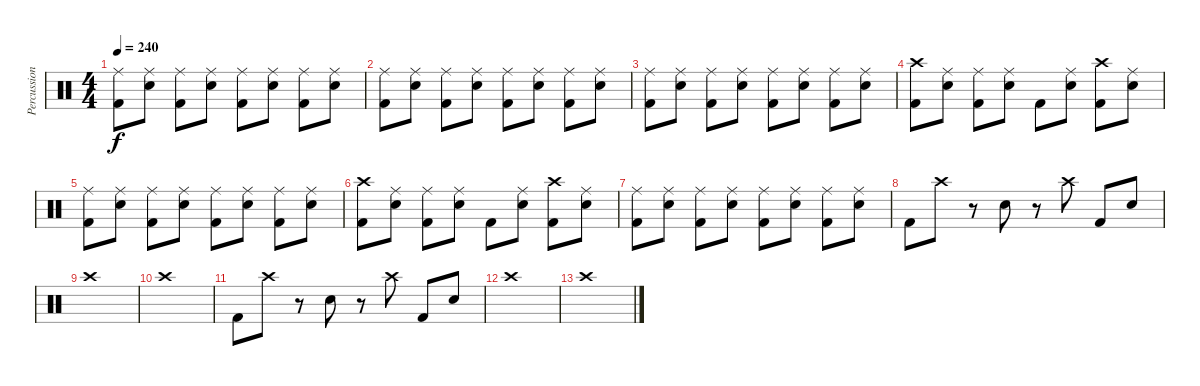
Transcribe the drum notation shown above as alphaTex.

\track ("Percussion" "Percussion") {instrument percussion}
\staff {score}
\articulation defaults
\ts (4 4)
\tempo 240
\clef neutral
\ks c
("Kick (hit) 2" "Ride (middle)").8{dy f} ("Snare (hit) 2" "Ride (middle)").8 ("Kick (hit) 2" "Ride (middle)").8 ("Snare (hit) 2" "Ride (middle)").8 ("Kick (hit) 2" "Ride (middle)").8 ("Snare (hit) 2" "Ride (middle)").8 ("Kick (hit) 2" "Ride (middle)").8 ("Snare (hit) 2" "Ride (middle)").8 |
("Kick (hit) 2" "Ride (middle)").8 ("Snare (hit) 2" "Ride (middle)").8 ("Kick (hit) 2" "Ride (middle)").8 ("Snare (hit) 2" "Ride (middle)").8 ("Kick (hit) 2" "Ride (middle)").8 ("Snare (hit) 2" "Ride (middle)").8 ("Kick (hit) 2" "Ride (middle)").8 ("Snare (hit) 2" "Ride (middle)").8 |
("Kick (hit) 2" "Ride (middle)").8 ("Snare (hit) 2" "Ride (middle)").8 ("Kick (hit) 2" "Ride (middle)").8 ("Snare (hit) 2" "Ride (middle)").8 ("Kick (hit) 2" "Ride (middle)").8 ("Snare (hit) 2" "Ride (middle)").8 ("Kick (hit) 2" "Ride (middle)").8 ("Snare (hit) 2" "Ride (middle)").8 |
("Kick (hit) 2" "Crash high (hit)").8 ("Snare (hit) 2" "Ride (middle)").8 ("Kick (hit) 2" "Ride (middle)").8 ("Snare (hit) 2" "Ride (middle)").8 "Kick (hit) 2".8 ("Snare (hit) 2" "Ride (middle)").8 ("Kick (hit) 2" "Crash high (hit)").8 ("Snare (hit) 2" "Ride (middle)").8 |
("Kick (hit) 2" "Ride (middle)").8 ("Snare (hit) 2" "Ride (middle)").8 ("Kick (hit) 2" "Ride (middle)").8 ("Snare (hit) 2" "Ride (middle)").8 ("Kick (hit) 2" "Ride (middle)").8 ("Snare (hit) 2" "Ride (middle)").8 ("Kick (hit) 2" "Ride (middle)").8 ("Snare (hit) 2" "Ride (middle)").8 |
("Kick (hit) 2" "Crash high (hit)").8 ("Snare (hit) 2" "Ride (middle)").8 ("Kick (hit) 2" "Ride (middle)").8 ("Snare (hit) 2" "Ride (middle)").8 "Kick (hit) 2".8 ("Snare (hit) 2" "Ride (middle)").8 ("Kick (hit) 2" "Crash high (hit)").8 ("Snare (hit) 2" "Ride (middle)").8 |
("Kick (hit) 2" "Ride (middle)").8 ("Snare (hit) 2" "Ride (middle)").8 ("Kick (hit) 2" "Ride (middle)").8 ("Snare (hit) 2" "Ride (middle)").8 ("Kick (hit) 2" "Ride (middle)").8 ("Snare (hit) 2" "Ride (middle)").8 ("Kick (hit) 2" "Ride (middle)").8 ("Snare (hit) 2" "Ride (middle)").8 |
"Kick (hit) 2".8 "Crash high (hit)".8 r.8 "Snare (hit) 2".8 r.8 "Crash high (hit)".8 "Kick (hit) 2".8 "Snare (hit) 2".8 |
"Crash high (hit)".1 |
"Crash high (hit)".1 |
"Kick (hit) 2".8 "Crash high (hit)".8 r.8 "Snare (hit) 2".8 r.8 "Crash high (hit)".8 "Kick (hit) 2".8 "Snare (hit) 2".8 |
"Crash high (hit)".1 |
"Crash high (hit)".1
